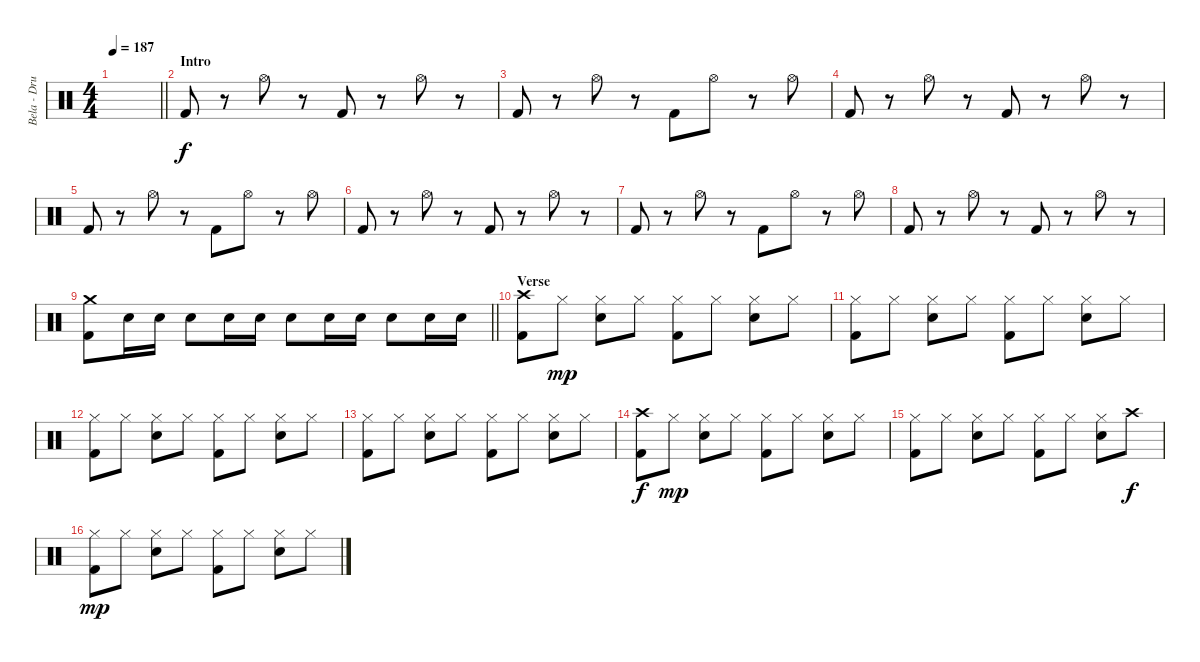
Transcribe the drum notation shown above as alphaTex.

\track ("Bela - Drums" "Bela - Dru") {instrument percussion}
\staff {score}
\articulation defaults
\ts (4 4)
\tempo 187
\clef neutral
\barLineRight lightlight
\ks c
|
\section ("" "Intro")
"Kick (hit) 2".8 r.8 "Hi-Hat (open)".8 r.8 "Kick (hit) 2".8 r.8 "Hi-Hat (open)".8 r.8 |
"Kick (hit) 2".8 r.8 "Hi-Hat (open)".8 r.8 "Kick (hit) 2".8 "Hi-Hat (open)".8 r.8 "Hi-Hat (open)".8 |
"Kick (hit) 2".8 r.8 "Hi-Hat (open)".8 r.8 "Kick (hit) 2".8 r.8 "Hi-Hat (open)".8 r.8 |
"Kick (hit) 2".8 r.8 "Hi-Hat (open)".8 r.8 "Kick (hit) 2".8 "Hi-Hat (open)".8 r.8 "Hi-Hat (open)".8 |
"Kick (hit) 2".8 r.8 "Hi-Hat (open)".8 r.8 "Kick (hit) 2".8 r.8 "Hi-Hat (open)".8 r.8 |
"Kick (hit) 2".8 r.8 "Hi-Hat (open)".8 r.8 "Kick (hit) 2".8 "Hi-Hat (open)".8 r.8 "Hi-Hat (open)".8 |
"Kick (hit) 2".8 r.8 "Hi-Hat (open)".8 r.8 "Kick (hit) 2".8 r.8 "Hi-Hat (open)".8 r.8 |
\barLineRight lightlight
("Crash medium (hit)" "Kick (hit) 2").8 "Electric Snare (hit)".16 "Electric Snare (hit)".16 "Electric Snare (hit)".8 "Electric Snare (hit)".16 "Electric Snare (hit)".16 "Electric Snare (hit)".8 "Electric Snare (hit)".16 "Electric Snare (hit)".16 "Electric Snare (hit)".8 "Electric Snare (hit)".16 "Electric Snare (hit)".16 |
\section ("" "Verse")
("Crash high (hit)" "Kick (hit) 2").8 "Hi-Hat (closed)".8{dy mp} ("Hi-Hat (closed)" "Snare (hit) 2").8 "Hi-Hat (closed)".8 ("Hi-Hat (closed)" "Kick (hit) 2").8 "Hi-Hat (closed)".8 ("Hi-Hat (closed)" "Snare (hit) 2").8 "Hi-Hat (closed)".8 |
("Hi-Hat (closed)" "Kick (hit) 2").8 "Hi-Hat (closed)".8 ("Hi-Hat (closed)" "Snare (hit) 2").8 "Hi-Hat (closed)".8 ("Hi-Hat (closed)" "Kick (hit) 2").8 "Hi-Hat (closed)".8 ("Hi-Hat (closed)" "Snare (hit) 2").8 "Hi-Hat (closed)".8 |
("Hi-Hat (closed)" "Kick (hit) 2").8 "Hi-Hat (closed)".8 ("Hi-Hat (closed)" "Snare (hit) 2").8 "Hi-Hat (closed)".8 ("Hi-Hat (closed)" "Kick (hit) 2").8 "Hi-Hat (closed)".8 ("Hi-Hat (closed)" "Snare (hit) 2").8 "Hi-Hat (closed)".8 |
("Hi-Hat (closed)" "Kick (hit) 2").8 "Hi-Hat (closed)".8 ("Hi-Hat (closed)" "Snare (hit) 2").8 "Hi-Hat (closed)".8 ("Hi-Hat (closed)" "Kick (hit) 2").8 "Hi-Hat (closed)".8 ("Hi-Hat (closed)" "Snare (hit) 2").8 "Hi-Hat (closed)".8 |
("Crash high (hit)" "Kick (hit) 2").8{dy f} "Hi-Hat (closed)".8{dy mp} ("Hi-Hat (closed)" "Snare (hit) 2").8 "Hi-Hat (closed)".8 ("Hi-Hat (closed)" "Kick (hit) 2").8 "Hi-Hat (closed)".8 ("Hi-Hat (closed)" "Snare (hit) 2").8 "Hi-Hat (closed)".8 |
("Hi-Hat (closed)" "Kick (hit) 2").8 "Hi-Hat (closed)".8 ("Hi-Hat (closed)" "Snare (hit) 2").8 "Hi-Hat (closed)".8 ("Hi-Hat (closed)" "Kick (hit) 2").8 "Hi-Hat (closed)".8 ("Hi-Hat (closed)" "Snare (hit) 2").8 "Crash high (hit)".8{dy f} |
("Hi-Hat (closed)" "Kick (hit) 2").8{dy mp} "Hi-Hat (closed)".8 ("Hi-Hat (closed)" "Snare (hit) 2").8 "Hi-Hat (closed)".8 ("Hi-Hat (closed)" "Kick (hit) 2").8 "Hi-Hat (closed)".8 ("Hi-Hat (closed)" "Snare (hit) 2").8 "Hi-Hat (closed)".8
